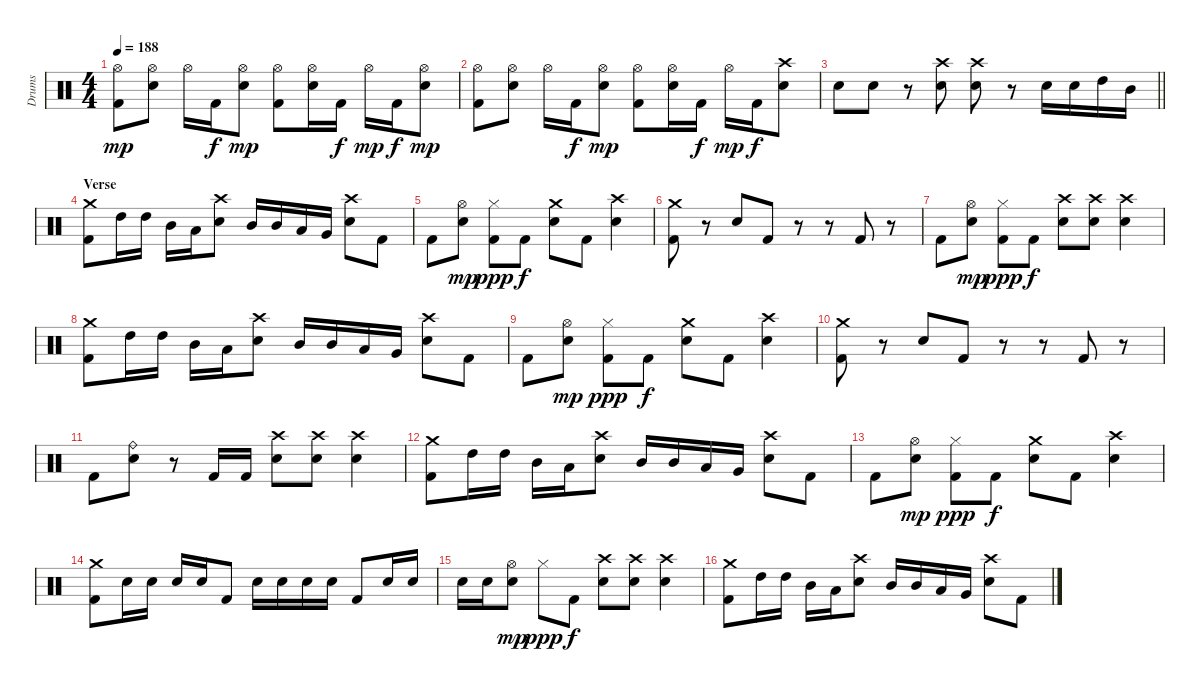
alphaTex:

\track ("Drums" "Drums") {instrument percussion}
\staff {score}
\articulation defaults
\ts (4 4)
\tempo 188
\clef neutral
\ks c
("Hi-Hat (open)" "Kick (hit) 2").8{dy mp} ("Hi-Hat (open)" "Snare (hit) 2").8 "Hi-Hat (open)".16 "Kick (hit) 2".16{dy f} ("Hi-Hat (open)" "Snare (hit) 2").8{dy mp} ("Hi-Hat (open)" "Kick (hit) 2").8 ("Hi-Hat (open)" "Snare (hit) 2").16 "Kick (hit) 2".16{dy f} "Hi-Hat (open)".16{dy mp} "Kick (hit) 2".16{dy f} ("Hi-Hat (open)" "Snare (hit) 2").8{dy mp} |
("Hi-Hat (open)" "Kick (hit) 2").8 ("Hi-Hat (open)" "Snare (hit) 2").8 "Hi-Hat (open)".16 "Kick (hit) 2".16{dy f} ("Hi-Hat (open)" "Snare (hit) 2").8{dy mp} ("Hi-Hat (open)" "Kick (hit) 2").8 ("Hi-Hat (open)" "Snare (hit) 2").16 "Kick (hit) 2".16{dy f} "Hi-Hat (open)".16{dy mp} "Kick (hit) 2".16{dy f} ("Crash high (hit)" "Snare (hit) 2").8 |
\barLineRight lightlight "Snare (hit) 2".8 "Snare (hit) 2".8
r.8 ("Crash high (hit)" "Snare (hit) 2").8 ("Crash high (hit)" "Snare (hit) 2").8 r.8 "Snare (hit) 2".16 "Snare (hit) 2".16 "High Tom (hit)".16 "Mid Tom (hit)".16 |
\section ("" "Verse")
("Crash medium (hit)" "Kick (hit) 2").8 "High Tom (hit)".16 "High Tom (hit)".16 "Mid Tom (hit)".16 "Low Tom (hit)".16 ("Crash high (hit)" "Snare (hit) 2").8 "Mid Tom (hit)".16 "Mid Tom (hit)".16 "Low Tom (hit)".16 "Very Low Tom (hit)".16 ("Crash high (hit)" "Snare (hit) 2").8 "Kick (hit) 2".8 |
"Kick (hit) 2".8 ("Hi-Hat (open)" "Snare (hit) 2").8{dy mp} ("Hi-Hat (closed)" "Kick (hit) 2").8{dy ppp} "Kick (hit) 2".8{dy f} ("Crash medium (hit)" "Snare (hit) 2").8 "Kick (hit) 2".8 ("Crash high (hit)" "Snare (hit) 2").4 |
("Crash medium (hit)" "Kick (hit) 2").8 r.8 "Snare (hit) 2".8 "Kick (hit) 2".8 r.8 r.8 "Kick (hit) 2".8 r.8 |
"Kick (hit) 2".8 ("Hi-Hat (open)" "Snare (hit) 2").8{dy mp} ("Hi-Hat (closed)" "Kick (hit) 2").8{dy ppp} "Kick (hit) 2".8{dy f} ("Crash high (hit)" "Snare (hit) 2").8 ("Crash high (hit)" "Snare (hit) 2").8 ("Crash high (hit)" "Snare (hit) 2").4 |
("Crash medium (hit)" "Kick (hit) 2").8 "High Tom (hit)".16 "High Tom (hit)".16 "Mid Tom (hit)".16 "Low Tom (hit)".16 ("Crash high (hit)" "Snare (hit) 2").8 "Mid Tom (hit)".16 "Mid Tom (hit)".16 "Low Tom (hit)".16 "Very Low Tom (hit)".16 ("Crash high (hit)" "Snare (hit) 2").8 "Kick (hit) 2".8 |
"Kick (hit) 2".8 ("Hi-Hat (open)" "Snare (hit) 2").8{dy mp} ("Hi-Hat (closed)" "Kick (hit) 2").8{dy ppp} "Kick (hit) 2".8{dy f} ("Crash medium (hit)" "Snare (hit) 2").8 "Kick (hit) 2".8 ("Crash high (hit)" "Snare (hit) 2").4 |
("Crash medium (hit)" "Kick (hit) 2").8 r.8 "Snare (hit) 2".8 "Kick (hit) 2".8 r.8 r.8 "Kick (hit) 2".8 r.8 |
"Kick (hit) 2".8 ("Ride (bell)" "Snare (hit) 2").8 r.8 "Kick (hit) 2".16 "Kick (hit) 2".16 ("Crash high (hit)" "Snare (hit) 2").8 ("Crash high (hit)" "Snare (hit) 2").8 ("Crash high (hit)" "Snare (hit) 2").4 |
("Crash medium (hit)" "Kick (hit) 2").8 "High Tom (hit)".16 "High Tom (hit)".16 "Mid Tom (hit)".16 "Low Tom (hit)".16 ("Crash high (hit)" "Snare (hit) 2").8 "Mid Tom (hit)".16 "Mid Tom (hit)".16 "Low Tom (hit)".16 "Very Low Tom (hit)".16 ("Crash high (hit)" "Snare (hit) 2").8 "Kick (hit) 2".8 |
"Kick (hit) 2".8 ("Hi-Hat (open)" "Snare (hit) 2").8{dy mp} ("Hi-Hat (closed)" "Kick (hit) 2").8{dy ppp} "Kick (hit) 2".8{dy f} ("Crash medium (hit)" "Snare (hit) 2").8 "Kick (hit) 2".8 ("Crash high (hit)" "Snare (hit) 2").4 |
("Crash medium (hit)" "Kick (hit) 2").8 "Snare (hit) 2".16 "Snare (hit) 2".16 "Snare (hit) 2".16 "Snare (hit) 2".16 "Kick (hit) 2".8 "Snare (hit) 2".16 "Snare (hit) 2".16 "Snare (hit) 2".16 "Snare (hit) 2".16 "Kick (hit) 2".8 "Snare (hit) 2".16 "Snare (hit) 2".16 |
"Snare (hit) 2".16 "Snare (hit) 2".16 ("Hi-Hat (open)" "Snare (hit) 2").8{dy mp} "Hi-Hat (closed)".8{dy ppp} "Kick (hit) 2".8{dy f} ("Crash high (hit)" "Snare (hit) 2").8 ("Crash high (hit)" "Snare (hit) 2").8 ("Crash high (hit)" "Snare (hit) 2").4 |
("Crash medium (hit)" "Kick (hit) 2").8 "High Tom (hit)".16 "High Tom (hit)".16 "Mid Tom (hit)".16 "Low Tom (hit)".16 ("Crash high (hit)" "Snare (hit) 2").8 "Mid Tom (hit)".16 "Mid Tom (hit)".16 "Low Tom (hit)".16 "Very Low Tom (hit)".16 ("Crash high (hit)" "Snare (hit) 2").8 "Kick (hit) 2".8
